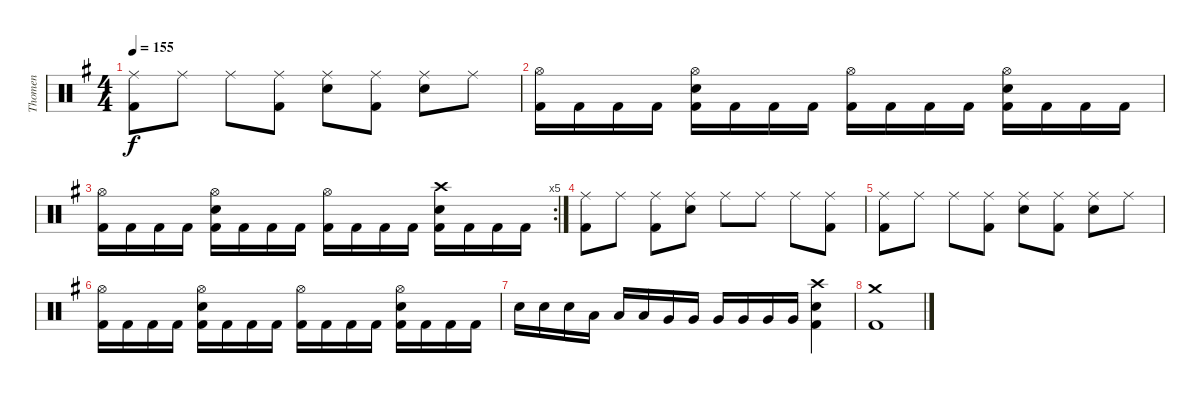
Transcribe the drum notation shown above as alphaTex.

\track ("Thomen" "Thomen") {instrument percussion}
\staff {score}
\articulation defaults
\ts (4 4)
\tempo 155
\clef neutral
\ks g
("Ride (middle)" "Kick (hit) 2").8{dy f} "Ride (middle)".8 "Ride (middle)".8 ("Ride (middle)" "Kick (hit) 2").8 ("Ride (middle)" "Electric Snare (hit)").8 ("Ride (middle)" "Kick (hit) 2").8 ("Ride (middle)" "Electric Snare (hit)").8 "Ride (middle)".8 |
("Hi-Hat (open)" "Kick (hit) 2").16 "Kick (hit) 2".16 "Kick (hit) 2".16 "Kick (hit) 2".16 ("Hi-Hat (open)" "Electric Snare (hit)" "Kick (hit) 2").16 "Kick (hit) 2".16 "Kick (hit) 2".16 "Kick (hit) 2".16 ("Hi-Hat (open)" "Kick (hit) 2").16 "Kick (hit) 2".16 "Kick (hit) 2".16 "Kick (hit) 2".16 ("Hi-Hat (open)" "Electric Snare (hit)" "Kick (hit) 2").16 "Kick (hit) 2".16 "Kick (hit) 2".16 "Kick (hit) 2".16 |
\rc 5
("Hi-Hat (open)" "Kick (hit) 2").16 "Kick (hit) 2".16 "Kick (hit) 2".16 "Kick (hit) 2".16 ("Hi-Hat (open)" "Electric Snare (hit)" "Kick (hit) 2").16 "Kick (hit) 2".16 "Kick (hit) 2".16 "Kick (hit) 2".16 ("Hi-Hat (open)" "Kick (hit) 2").16 "Kick (hit) 2".16 "Kick (hit) 2".16 "Kick (hit) 2".16 ("Crash high (hit)" "Electric Snare (hit)" "Kick (hit) 2").16 "Kick (hit) 2".16 "Kick (hit) 2".16 "Kick (hit) 2".16 |
("Ride (middle)" "Kick (hit) 2").8 "Ride (middle)".8 ("Ride (middle)" "Kick (hit) 2").8 ("Ride (middle)" "Electric Snare (hit)").8 "Ride (middle)".8 "Ride (middle)".8 "Ride (middle)".8 ("Ride (middle)" "Kick (hit) 2").8 |
("Ride (middle)" "Kick (hit) 2").8 "Ride (middle)".8 "Ride (middle)".8 ("Ride (middle)" "Kick (hit) 2").8 ("Ride (middle)" "Electric Snare (hit)").8 ("Ride (middle)" "Kick (hit) 2").8 ("Ride (middle)" "Electric Snare (hit)").8 "Ride (middle)".8 |
("Hi-Hat (open)" "Kick (hit) 2").16 "Kick (hit) 2".16 "Kick (hit) 2".16 "Kick (hit) 2".16 ("Hi-Hat (open)" "Electric Snare (hit)" "Kick (hit) 2").16 "Kick (hit) 2".16 "Kick (hit) 2".16 "Kick (hit) 2".16 ("Hi-Hat (open)" "Kick (hit) 2").16 "Kick (hit) 2".16 "Kick (hit) 2".16 "Kick (hit) 2".16 ("Hi-Hat (open)" "Electric Snare (hit)" "Kick (hit) 2").16 "Kick (hit) 2".16 "Kick (hit) 2".16 "Kick (hit) 2".16 |
"Electric Snare (hit)".16 "Electric Snare (hit)".16 "Electric Snare (hit)".16 "Low Tom (hit)".16 "Low Tom (hit)".16 "Low Tom (hit)".16 "Very Low Tom (hit)".16 "Very Low Tom (hit)".16 "Very Low Tom (hit)".16 "Very Low Tom (hit)".16 "Very Low Tom (hit)".16 "Very Low Tom (hit)".16 ("Crash high (hit)" "Electric Snare (hit)" "Kick (hit) 2").4 |
("Crash medium (hit)" "Kick (hit) 2").1
